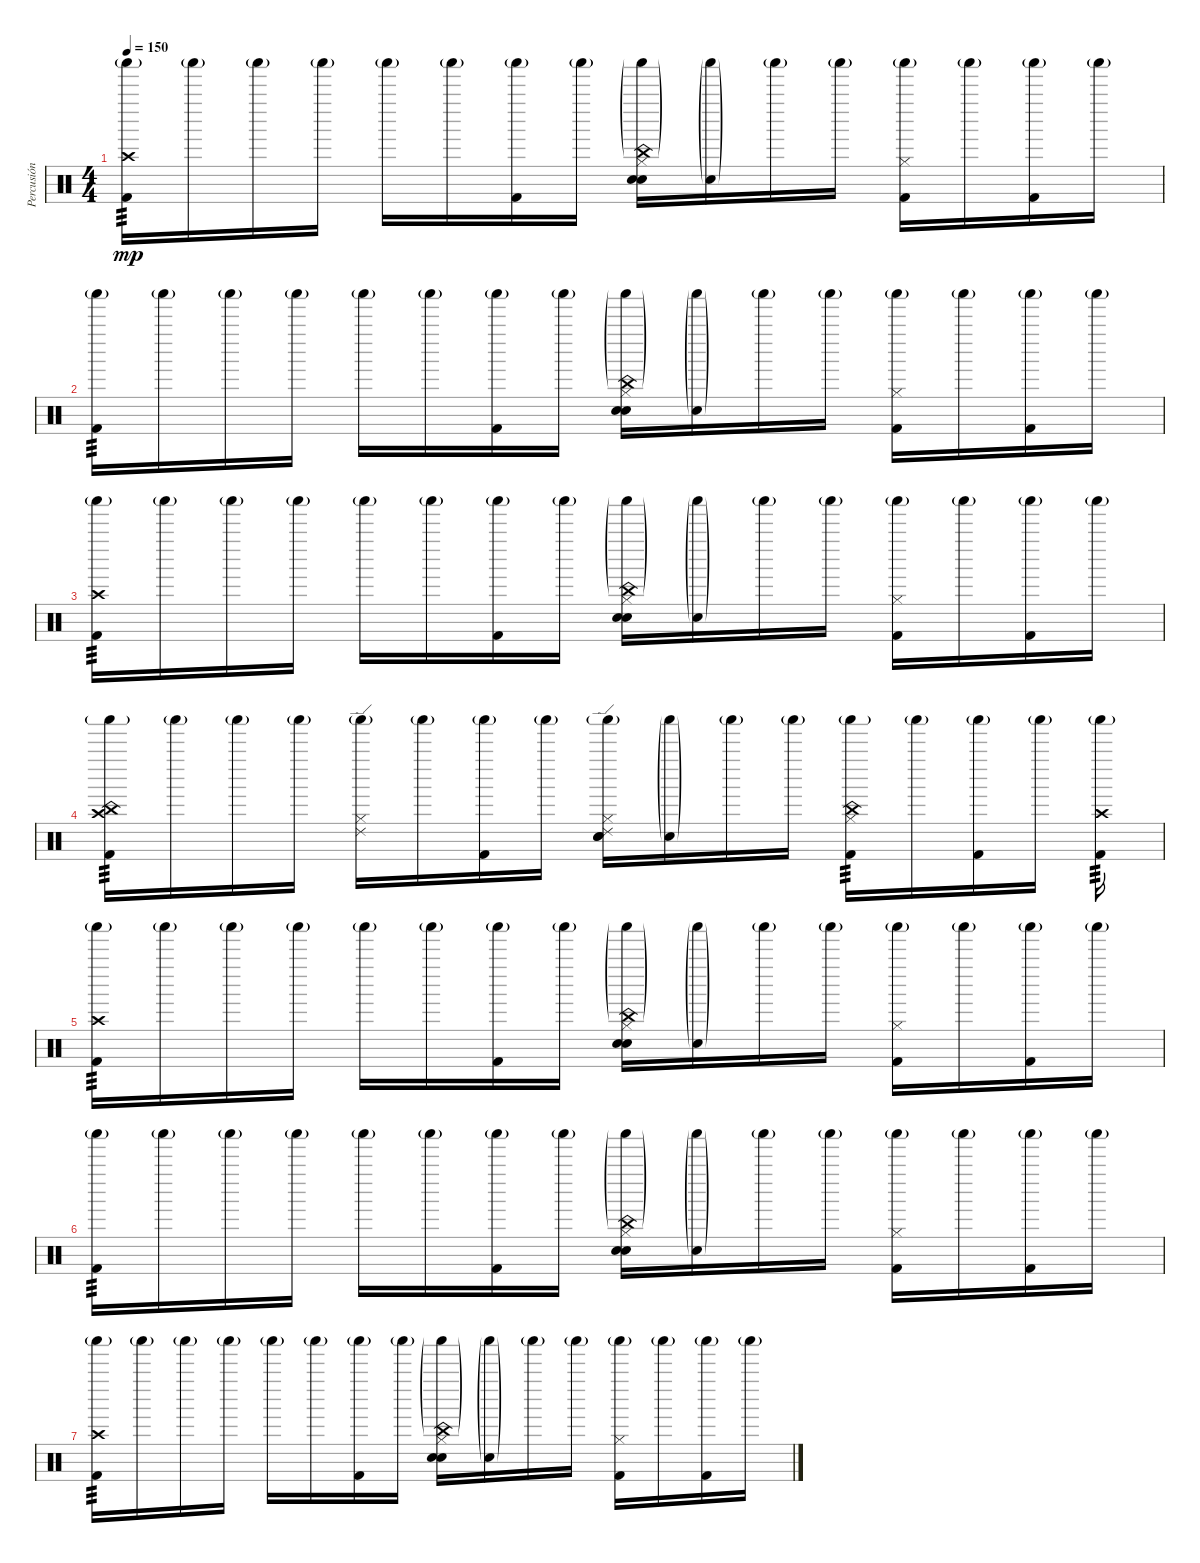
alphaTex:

\track ("Percusión" "Percusión") {instrument percussion}
\staff {score}
\articulation defaults
\ts (4 4)
\tempo 150
\clef neutral
\ks c
("Crash high (hit)" "Shaker (hit)"{g} "Kick (hit) 2").16{tp 3 dy mp} "Shaker (hit)"{g}.16 "Shaker (hit)"{g}.16 "Shaker (hit)"{g}.16 "Shaker (hit)"{g}.16 "Shaker (hit)"{g}.16 ("Shaker (hit)"{g} "Kick (hit) 2").16 "Shaker (hit)"{g}.16 ("China (hit)"{g} "Hand Clap (hit)" "Hi-Hat (closed)" "Shaker (hit)"{g} "Electric Snare (hit)").16 ("Hand Clap (hit)"{g} "Shaker (hit)"{g}).16 "Shaker (hit)"{g}.16 "Shaker (hit)"{g}.16 ("Hi-Hat (closed)" "Shaker (hit)"{g} "Kick (hit) 2").16 "Shaker (hit)"{g}.16 ("Shaker (hit)"{g} "Kick (hit) 2").16 "Shaker (hit)"{g}.16 |
("Shaker (hit)"{g} "Kick (hit) 2").16{tp 3} "Shaker (hit)"{g}.16 "Shaker (hit)"{g}.16 "Shaker (hit)"{g}.16 "Shaker (hit)"{g}.16 "Shaker (hit)"{g}.16 ("Shaker (hit)"{g} "Kick (hit) 2").16 "Shaker (hit)"{g}.16 ("China (hit)"{g} "Hand Clap (hit)" "Hi-Hat (closed)" "Shaker (hit)"{g} "Electric Snare (hit)").16 ("Hand Clap (hit)"{g} "Shaker (hit)"{g}).16 "Shaker (hit)"{g}.16 "Shaker (hit)"{g}.16 ("Hi-Hat (closed)" "Shaker (hit)"{g} "Kick (hit) 2").16 "Shaker (hit)"{g}.16 ("Shaker (hit)"{g} "Kick (hit) 2").16 "Shaker (hit)"{g}.16 |
("Crash high (hit)" "Shaker (hit)"{g} "Kick (hit) 2").16{tp 3} "Shaker (hit)"{g}.16 "Shaker (hit)"{g}.16 "Shaker (hit)"{g}.16 "Shaker (hit)"{g}.16 "Shaker (hit)"{g}.16 ("Shaker (hit)"{g} "Kick (hit) 2").16 "Shaker (hit)"{g}.16 ("China (hit)"{g} "Hand Clap (hit)" "Hi-Hat (closed)" "Shaker (hit)"{g} "Electric Snare (hit)").16 ("Hand Clap (hit)"{g} "Shaker (hit)"{g}).16 "Shaker (hit)"{g}.16 "Shaker (hit)"{g}.16 ("Hi-Hat (closed)" "Shaker (hit)"{g} "Kick (hit) 2").16 "Shaker (hit)"{g}.16 ("Shaker (hit)"{g} "Kick (hit) 2").16 "Shaker (hit)"{g}.16 |
("China (hit)" "Crash high (hit)" "Shaker (hit)"{g} "Kick (hit) 2").16{tp 3} "Shaker (hit)"{g}.16 "Shaker (hit)"{g}.16 "Shaker (hit)"{g}.16 ("Ride (edge) 2" "Hi-Hat (closed)" "Shaker (hit)"{g}).16 "Shaker (hit)"{g}.16 ("Shaker (hit)"{g} "Kick (hit) 2").16 "Shaker (hit)"{g}.16 ("Ride (edge) 2" "Hand Clap (hit)" "Hi-Hat (closed)" "Shaker (hit)"{g} "Electric Snare (hit)").16 ("Hand Clap (hit)"{g} "Shaker (hit)"{g}).16 "Shaker (hit)"{g}.16 "Shaker (hit)"{g}.16 ("China (hit)" "Hi-Hat (closed)" "Shaker (hit)"{g} "Kick (hit) 2").16{tp 3} "Shaker (hit)"{g}.16 ("Shaker (hit)"{g} "Kick (hit) 2").16 "Shaker (hit)"{g}.16 ("Crash high (hit)" "Shaker (hit)"{g} "Kick (hit) 2").16{tp 3} |
("Crash high (hit)" "Shaker (hit)"{g} "Kick (hit) 2").16{tp 3} "Shaker (hit)"{g}.16 "Shaker (hit)"{g}.16 "Shaker (hit)"{g}.16 "Shaker (hit)"{g}.16 "Shaker (hit)"{g}.16 ("Shaker (hit)"{g} "Kick (hit) 2").16 "Shaker (hit)"{g}.16 ("China (hit)"{g} "Hand Clap (hit)" "Hi-Hat (closed)" "Shaker (hit)"{g} "Electric Snare (hit)").16 ("Hand Clap (hit)"{g} "Shaker (hit)"{g}).16 "Shaker (hit)"{g}.16 "Shaker (hit)"{g}.16 ("Hi-Hat (closed)" "Shaker (hit)"{g} "Kick (hit) 2").16 "Shaker (hit)"{g}.16 ("Shaker (hit)"{g} "Kick (hit) 2").16 "Shaker (hit)"{g}.16 |
("Shaker (hit)"{g} "Kick (hit) 2").16{tp 3} "Shaker (hit)"{g}.16 "Shaker (hit)"{g}.16 "Shaker (hit)"{g}.16 "Shaker (hit)"{g}.16 "Shaker (hit)"{g}.16 ("Shaker (hit)"{g} "Kick (hit) 2").16 "Shaker (hit)"{g}.16 ("China (hit)"{g} "Hand Clap (hit)" "Hi-Hat (closed)" "Shaker (hit)"{g} "Electric Snare (hit)").16 ("Hand Clap (hit)"{g} "Shaker (hit)"{g}).16 "Shaker (hit)"{g}.16 "Shaker (hit)"{g}.16 ("Hi-Hat (closed)" "Shaker (hit)"{g} "Kick (hit) 2").16 "Shaker (hit)"{g}.16 ("Shaker (hit)"{g} "Kick (hit) 2").16 "Shaker (hit)"{g}.16 |
("Crash high (hit)" "Shaker (hit)"{g} "Kick (hit) 2").16{tp 3} "Shaker (hit)"{g}.16 "Shaker (hit)"{g}.16 "Shaker (hit)"{g}.16 "Shaker (hit)"{g}.16 "Shaker (hit)"{g}.16 ("Shaker (hit)"{g} "Kick (hit) 2").16 "Shaker (hit)"{g}.16 ("China (hit)"{g} "Hand Clap (hit)" "Hi-Hat (closed)" "Shaker (hit)"{g} "Electric Snare (hit)").16 ("Hand Clap (hit)"{g} "Shaker (hit)"{g}).16 "Shaker (hit)"{g}.16 "Shaker (hit)"{g}.16 ("Hi-Hat (closed)" "Shaker (hit)"{g} "Kick (hit) 2").16 "Shaker (hit)"{g}.16 ("Shaker (hit)"{g} "Kick (hit) 2").16 "Shaker (hit)"{g}.16
